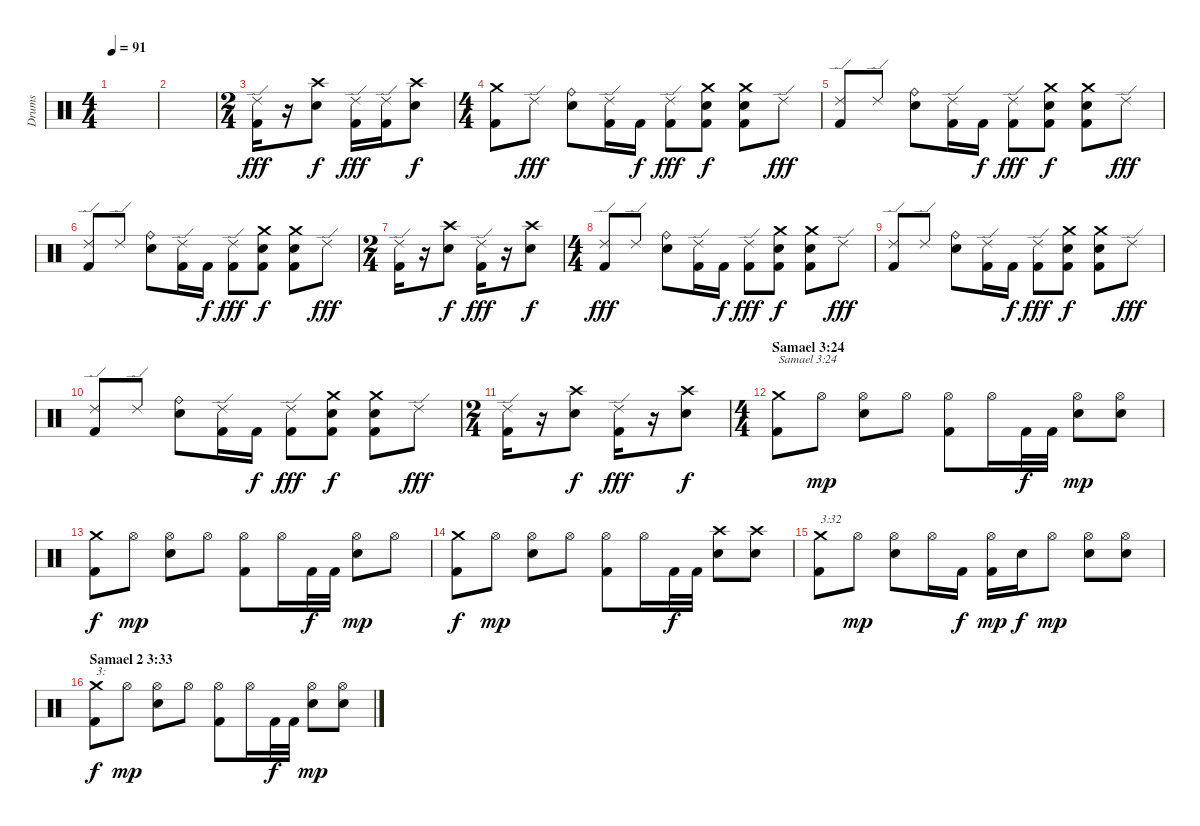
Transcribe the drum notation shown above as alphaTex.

\track ("Drums" "Drums") {instrument percussion}
\staff {score}
\articulation defaults
\ts (4 4)
\tempo 91
\clef neutral
\ks c
|
|
\ts (2 4)
("Kick (hit) 2" "Ride (edge) 2").16{dy fff} r.16 ("Electric Snare (hit)" "Crash high (hit)").8{dy f} ("Kick (hit) 2" "Ride (edge) 2").16{dy fff} ("Kick (hit) 2" "Ride (edge) 2").16 ("Electric Snare (hit)" "Crash high (hit)").8{dy f} |
\ts (4 4)
("Kick (hit) 2" "Crash medium (hit)").8 "Ride (edge) 2".8{dy fff} ("Electric Snare (hit)" "Ride (bell)").8 ("Kick (hit) 2" "Ride (edge) 2").16 "Kick (hit) 2".16{dy f} ("Kick (hit) 2" "Ride (edge) 2").8{dy fff} ("Kick (hit) 2" "Electric Snare (hit)" "Crash medium (hit)").8{dy f} ("Kick (hit) 2" "Electric Snare (hit)" "Crash medium (hit)").8 "Ride (edge) 2".8{dy fff} |
("Kick (hit) 2" "Ride (edge) 2").8 "Ride (edge) 2".8 ("Electric Snare (hit)" "Ride (bell)").8 ("Kick (hit) 2" "Ride (edge) 2").16 "Kick (hit) 2".16{dy f} ("Kick (hit) 2" "Ride (edge) 2").8{dy fff} ("Kick (hit) 2" "Electric Snare (hit)" "Crash medium (hit)").8{dy f} ("Kick (hit) 2" "Electric Snare (hit)" "Crash medium (hit)").8 "Ride (edge) 2".8{dy fff} |
("Kick (hit) 2" "Ride (edge) 2").8 "Ride (edge) 2".8 ("Electric Snare (hit)" "Ride (bell)").8 ("Kick (hit) 2" "Ride (edge) 2").16 "Kick (hit) 2".16{dy f} ("Kick (hit) 2" "Ride (edge) 2").8{dy fff} ("Kick (hit) 2" "Electric Snare (hit)" "Crash medium (hit)").8{dy f} ("Kick (hit) 2" "Electric Snare (hit)" "Crash medium (hit)").8 "Ride (edge) 2".8{dy fff} |
\ts (2 4)
("Kick (hit) 2" "Ride (edge) 2").16 r.16 ("Electric Snare (hit)" "Crash high (hit)").8{dy f} ("Kick (hit) 2" "Ride (edge) 2").16{dy fff} r.16 ("Electric Snare (hit)" "Crash high (hit)").8{dy f} |
\ts (4 4)
("Kick (hit) 2" "Ride (edge) 2").8{dy fff} "Ride (edge) 2".8 ("Electric Snare (hit)" "Ride (bell)").8 ("Kick (hit) 2" "Ride (edge) 2").16 "Kick (hit) 2".16{dy f} ("Kick (hit) 2" "Ride (edge) 2").8{dy fff} ("Kick (hit) 2" "Electric Snare (hit)" "Crash medium (hit)").8{dy f} ("Kick (hit) 2" "Electric Snare (hit)" "Crash medium (hit)").8 "Ride (edge) 2".8{dy fff} |
("Kick (hit) 2" "Ride (edge) 2").8 "Ride (edge) 2".8 ("Electric Snare (hit)" "Ride (bell)").8 ("Kick (hit) 2" "Ride (edge) 2").16 "Kick (hit) 2".16{dy f} ("Kick (hit) 2" "Ride (edge) 2").8{dy fff} ("Kick (hit) 2" "Electric Snare (hit)" "Crash medium (hit)").8{dy f} ("Kick (hit) 2" "Electric Snare (hit)" "Crash medium (hit)").8 "Ride (edge) 2".8{dy fff} |
("Kick (hit) 2" "Ride (edge) 2").8 "Ride (edge) 2".8 ("Electric Snare (hit)" "Ride (bell)").8 ("Kick (hit) 2" "Ride (edge) 2").16 "Kick (hit) 2".16{dy f} ("Kick (hit) 2" "Ride (edge) 2").8{dy fff} ("Kick (hit) 2" "Electric Snare (hit)" "Crash medium (hit)").8{dy f} ("Kick (hit) 2" "Electric Snare (hit)" "Crash medium (hit)").8 "Ride (edge) 2".8{dy fff} |
\ts (2 4)
("Kick (hit) 2" "Ride (edge) 2").16 r.16 ("Electric Snare (hit)" "Crash high (hit)").8{dy f} ("Kick (hit) 2" "Ride (edge) 2").16{dy fff} r.16 ("Electric Snare (hit)" "Crash high (hit)").8{dy f} |
\ts (4 4)
\section ("" "Samael 3:24")
("Kick (hit) 2" "Crash medium (hit)").8{txt "Samael 3:24"} "Hi-Hat (open)".8{dy mp} ("Electric Snare (hit)" "Hi-Hat (open)").8 "Hi-Hat (open)".8 ("Kick (hit) 2" "Hi-Hat (open)").8 "Hi-Hat (open)".16 "Kick (hit) 2".32{dy f} "Kick (hit) 2".32 ("Electric Snare (hit)" "Hi-Hat (open)").8{dy mp} ("Electric Snare (hit)" "Hi-Hat (open)").8 |
("Kick (hit) 2" "Crash medium (hit)").8{dy f} "Hi-Hat (open)".8{dy mp} ("Electric Snare (hit)" "Hi-Hat (open)").8 "Hi-Hat (open)".8 ("Kick (hit) 2" "Hi-Hat (open)").8 "Hi-Hat (open)".16 "Kick (hit) 2".32{dy f} "Kick (hit) 2".32 ("Electric Snare (hit)" "Hi-Hat (open)").8{dy mp} "Hi-Hat (open)".8 |
("Kick (hit) 2" "Crash medium (hit)").8{dy f} "Hi-Hat (open)".8{dy mp} ("Electric Snare (hit)" "Hi-Hat (open)").8 "Hi-Hat (open)".8 ("Kick (hit) 2" "Hi-Hat (open)").8 "Hi-Hat (open)".16 "Kick (hit) 2".32{dy f} "Kick (hit) 2".32 ("Electric Snare (hit)" "Crash high (hit)").8 ("Electric Snare (hit)" "Crash high (hit)").8 |
("Kick (hit) 2" "Crash medium (hit)").8{txt "3:32"} "Hi-Hat (open)".8{dy mp} ("Electric Snare (hit)" "Hi-Hat (open)").8 "Hi-Hat (open)".16 "Kick (hit) 2".16{dy f} ("Kick (hit) 2" "Hi-Hat (open)").16{dy mp} "Electric Snare (hit)".16{dy f} "Hi-Hat (open)".8{dy mp} ("Electric Snare (hit)" "Hi-Hat (open)").8 ("Electric Snare (hit)" "Hi-Hat (open)").8 |
\section ("" "Samael 2 3:33")
("Kick (hit) 2" "Crash medium (hit)").8{txt "3:" dy f} "Hi-Hat (open)".8{dy mp} ("Electric Snare (hit)" "Hi-Hat (open)").8 "Hi-Hat (open)".8 ("Kick (hit) 2" "Hi-Hat (open)").8 "Hi-Hat (open)".16 "Kick (hit) 2".32{dy f} "Kick (hit) 2".32 ("Electric Snare (hit)" "Hi-Hat (open)").8{dy mp} ("Electric Snare (hit)" "Hi-Hat (open)").8
